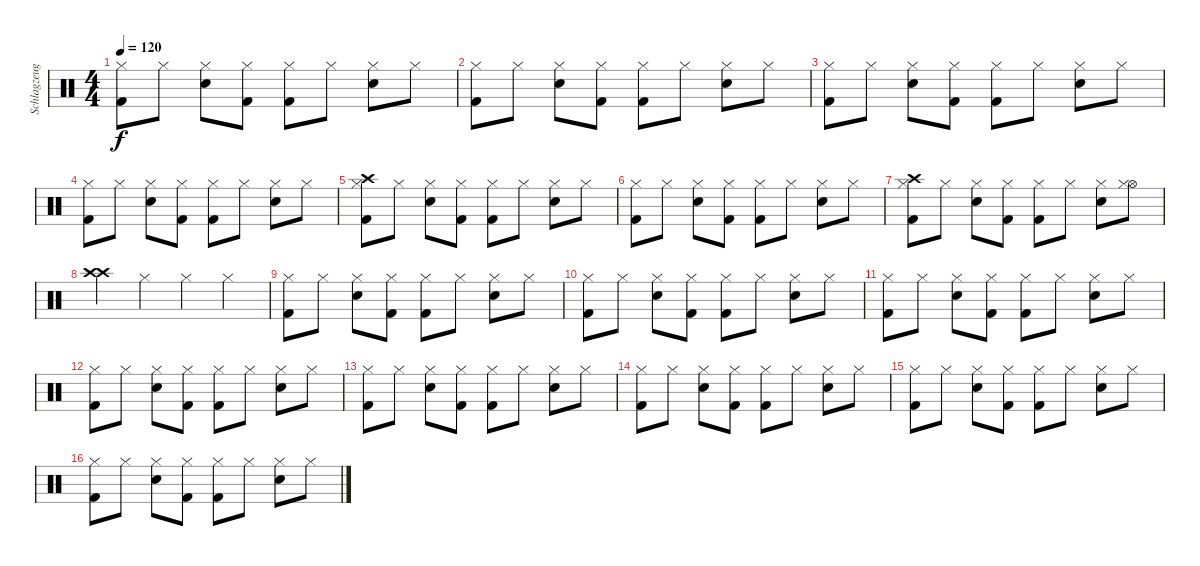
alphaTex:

\track ("Schlagzeug" "Schlagzeug") {instrument percussion}
\staff {score}
\articulation defaults
\ts (4 4)
\tempo 120
\clef neutral
\ks c
("Hi-Hat (closed)" "Kick (hit) 2").8{dy f} "Hi-Hat (closed)".8 ("Hi-Hat (closed)" "Electric Snare (hit)").8 ("Hi-Hat (closed)" "Kick (hit) 2").8 ("Hi-Hat (closed)" "Kick (hit) 2").8 "Hi-Hat (closed)".8 ("Hi-Hat (closed)" "Electric Snare (hit)").8 "Hi-Hat (closed)".8 |
("Hi-Hat (closed)" "Kick (hit) 2").8 "Hi-Hat (closed)".8 ("Hi-Hat (closed)" "Electric Snare (hit)").8 ("Hi-Hat (closed)" "Kick (hit) 2").8 ("Hi-Hat (closed)" "Kick (hit) 2").8 "Hi-Hat (closed)".8 ("Hi-Hat (closed)" "Electric Snare (hit)").8 "Hi-Hat (closed)".8 |
("Hi-Hat (closed)" "Kick (hit) 2").8 "Hi-Hat (closed)".8 ("Hi-Hat (closed)" "Electric Snare (hit)").8 ("Hi-Hat (closed)" "Kick (hit) 2").8 ("Hi-Hat (closed)" "Kick (hit) 2").8 "Hi-Hat (closed)".8 ("Hi-Hat (closed)" "Electric Snare (hit)").8 "Hi-Hat (closed)".8 |
("Hi-Hat (closed)" "Kick (hit) 2").8 "Hi-Hat (closed)".8 ("Hi-Hat (closed)" "Electric Snare (hit)").8 ("Hi-Hat (closed)" "Kick (hit) 2").8 ("Hi-Hat (closed)" "Kick (hit) 2").8 "Hi-Hat (closed)".8 ("Hi-Hat (closed)" "Electric Snare (hit)").8 "Hi-Hat (closed)".8 |
("Crash high (hit)" "Hi-Hat (closed)" "Kick (hit) 2").8 "Hi-Hat (closed)".8 ("Hi-Hat (closed)" "Electric Snare (hit)").8 ("Hi-Hat (closed)" "Kick (hit) 2").8 ("Hi-Hat (closed)" "Kick (hit) 2").8 "Hi-Hat (closed)".8 ("Hi-Hat (closed)" "Electric Snare (hit)").8 "Hi-Hat (closed)".8 |
("Hi-Hat (closed)" "Kick (hit) 2").8 "Hi-Hat (closed)".8 ("Hi-Hat (closed)" "Electric Snare (hit)").8 ("Hi-Hat (closed)" "Kick (hit) 2").8 ("Hi-Hat (closed)" "Kick (hit) 2").8 "Hi-Hat (closed)".8 ("Hi-Hat (closed)" "Electric Snare (hit)").8 "Hi-Hat (closed)".8 |
("Crash high (hit)" "Hi-Hat (closed)" "Kick (hit) 2").8 "Hi-Hat (closed)".8 ("Hi-Hat (closed)" "Electric Snare (hit)").8 ("Hi-Hat (closed)" "Kick (hit) 2").8 ("Hi-Hat (closed)" "Kick (hit) 2").8 "Hi-Hat (closed)".8 ("Hi-Hat (closed)" "Electric Snare (hit)").8 ("Hi-Hat (open)" "Hi-Hat (closed)").8 |
("Crash high (hit)" "Crash high (hit)").4 "Hi-Hat (closed)".4 "Hi-Hat (closed)".4 "Hi-Hat (closed)".4 |
("Hi-Hat (closed)" "Kick (hit) 2").8 "Hi-Hat (closed)".8 ("Hi-Hat (closed)" "Electric Snare (hit)").8 ("Hi-Hat (closed)" "Kick (hit) 2").8 ("Hi-Hat (closed)" "Kick (hit) 2").8 "Hi-Hat (closed)".8 ("Hi-Hat (closed)" "Electric Snare (hit)").8 "Hi-Hat (closed)".8 |
("Hi-Hat (closed)" "Kick (hit) 2").8 "Hi-Hat (closed)".8 ("Hi-Hat (closed)" "Electric Snare (hit)").8 ("Hi-Hat (closed)" "Kick (hit) 2").8 ("Hi-Hat (closed)" "Kick (hit) 2").8 "Hi-Hat (closed)".8 ("Hi-Hat (closed)" "Electric Snare (hit)").8 "Hi-Hat (closed)".8 |
("Hi-Hat (closed)" "Kick (hit) 2").8 "Hi-Hat (closed)".8 ("Hi-Hat (closed)" "Electric Snare (hit)").8 ("Hi-Hat (closed)" "Kick (hit) 2").8 ("Hi-Hat (closed)" "Kick (hit) 2").8 "Hi-Hat (closed)".8 ("Hi-Hat (closed)" "Electric Snare (hit)").8 "Hi-Hat (closed)".8 |
("Hi-Hat (closed)" "Kick (hit) 2").8 "Hi-Hat (closed)".8 ("Hi-Hat (closed)" "Electric Snare (hit)").8 ("Hi-Hat (closed)" "Kick (hit) 2").8 ("Hi-Hat (closed)" "Kick (hit) 2").8 "Hi-Hat (closed)".8 ("Hi-Hat (closed)" "Electric Snare (hit)").8 "Hi-Hat (closed)".8 |
("Hi-Hat (closed)" "Kick (hit) 2").8 "Hi-Hat (closed)".8 ("Hi-Hat (closed)" "Electric Snare (hit)").8 ("Hi-Hat (closed)" "Kick (hit) 2").8 ("Hi-Hat (closed)" "Kick (hit) 2").8 "Hi-Hat (closed)".8 ("Hi-Hat (closed)" "Electric Snare (hit)").8 "Hi-Hat (closed)".8 |
("Hi-Hat (closed)" "Kick (hit) 2").8 "Hi-Hat (closed)".8 ("Hi-Hat (closed)" "Electric Snare (hit)").8 ("Hi-Hat (closed)" "Kick (hit) 2").8 ("Hi-Hat (closed)" "Kick (hit) 2").8 "Hi-Hat (closed)".8 ("Hi-Hat (closed)" "Electric Snare (hit)").8 "Hi-Hat (closed)".8 |
("Hi-Hat (closed)" "Kick (hit) 2").8 "Hi-Hat (closed)".8 ("Hi-Hat (closed)" "Electric Snare (hit)").8 ("Hi-Hat (closed)" "Kick (hit) 2").8 ("Hi-Hat (closed)" "Kick (hit) 2").8 "Hi-Hat (closed)".8 ("Hi-Hat (closed)" "Electric Snare (hit)").8 "Hi-Hat (closed)".8 |
("Hi-Hat (closed)" "Kick (hit) 2").8 "Hi-Hat (closed)".8 ("Hi-Hat (closed)" "Electric Snare (hit)").8 ("Hi-Hat (closed)" "Kick (hit) 2").8 ("Hi-Hat (closed)" "Kick (hit) 2").8 "Hi-Hat (closed)".8 ("Hi-Hat (closed)" "Electric Snare (hit)").8 "Hi-Hat (closed)".8
